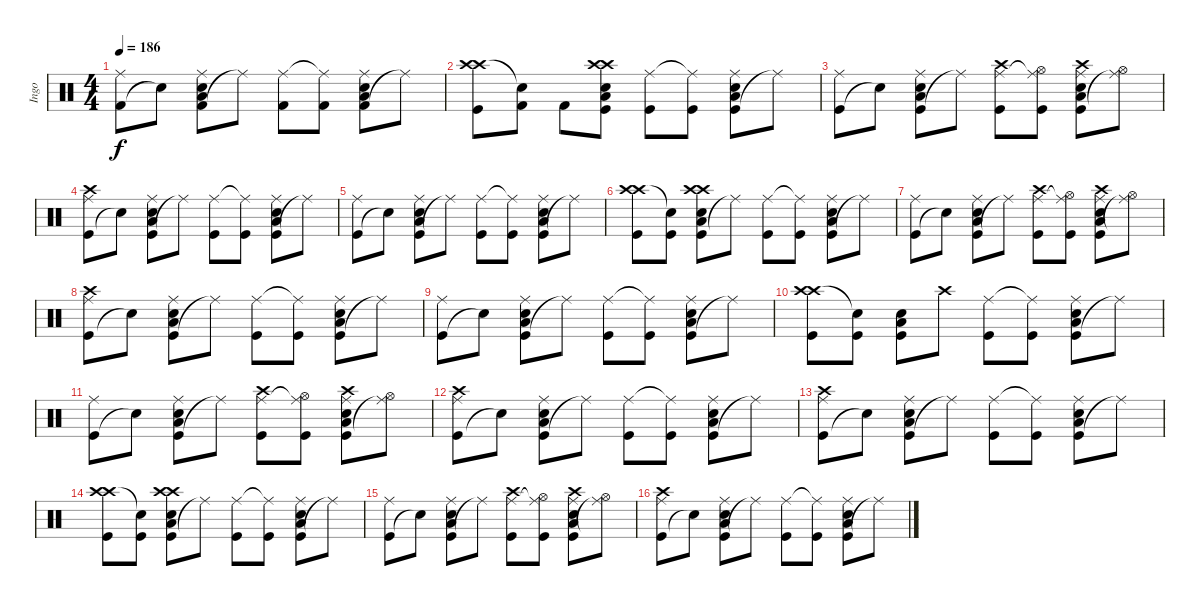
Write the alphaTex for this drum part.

\track ("Ingo" "Ingo") {instrument percussion}
\staff {score}
\articulation defaults
\ts (4 4)
\tempo 186
\clef neutral
\ks c
("Kick (hit) 2" "Ride (middle)").8{dy f} "Snare (hit)"{t}.8 ("Kick (hit) 2" "Low Tom (hit)" "Snare (hit) 2" "Ride (middle)").8 "Ride (middle)"{t}.8 ("Kick (hit) 2" "Ride (middle)").8 ("Kick (hit) 2" "Ride (middle)"{t}).8 ("Kick (hit) 2" "Low Tom (hit)" "Snare (hit) 2" "Ride (middle)").8 "Ride (middle)"{t}.8 |
("Kick (hit)" "Crash high (hit)" "Crash high (hit)").8 ("Kick (hit) 2" "Snare (hit)"{t}).8 "Kick (hit) 2".8 ("Kick (hit)" "Low Tom (hit)" "Snare (hit) 2" "Crash high (hit)" "Crash high (hit)").8 ("Kick (hit)" "Ride (middle)").8 ("Kick (hit)" "Ride (middle)"{t}).8 ("Kick (hit)" "Low Tom (hit)" "Snare (hit) 2" "Ride (middle)").8 "Ride (middle)"{t}.8 |
("Kick (hit)" "Ride (middle)").8 "Snare (hit)"{t}.8 ("Kick (hit)" "Low Tom (hit)" "Snare (hit) 2" "Ride (middle)").8 "Ride (middle)"{t}.8 ("Kick (hit)" "Ride (middle)" "Crash high (hit)").8 ("Kick (hit)" "Ride (middle)"{t} "Hi-Hat (open)").8 ("Kick (hit)" "Low Tom (hit)" "Snare (hit) 2" "Ride (middle)" "Crash high (hit)").8 ("Ride (middle)"{t} "Hi-Hat (open)").8 |
("Kick (hit)" "Ride (middle)" "Crash high (hit)").8 "Snare (hit)"{t}.8 ("Kick (hit)" "Low Tom (hit)" "Snare (hit) 2" "Ride (middle)").8 "Ride (middle)"{t}.8 ("Kick (hit)" "Ride (middle)").8 ("Kick (hit)" "Ride (middle)"{t}).8 ("Kick (hit)" "Low Tom (hit)" "Snare (hit) 2" "Ride (middle)").8 "Ride (middle)"{t}.8 |
("Kick (hit)" "Ride (middle)").8 "Snare (hit)"{t}.8 ("Kick (hit)" "Low Tom (hit)" "Snare (hit) 2" "Ride (middle)").8 "Ride (middle)"{t}.8 ("Kick (hit)" "Ride (middle)").8 ("Kick (hit)" "Ride (middle)"{t}).8 ("Kick (hit)" "Low Tom (hit)" "Snare (hit) 2" "Ride (middle)").8 "Ride (middle)"{t}.8 |
("Kick (hit)" "Crash high (hit)" "Crash high (hit)").8 ("Kick (hit)" "Snare (hit)"{t}).8 ("Kick (hit)" "Low Tom (hit)" "Snare (hit) 2" "Crash high (hit)" "Crash high (hit)").8 "Ride (middle)"{t}.8 ("Kick (hit)" "Ride (middle)").8 ("Kick (hit)" "Ride (middle)"{t}).8 ("Kick (hit)" "Low Tom (hit)" "Snare (hit) 2" "Ride (middle)").8 "Ride (middle)"{t}.8 |
("Kick (hit)" "Ride (middle)").8 "Snare (hit)"{t}.8 ("Kick (hit)" "Low Tom (hit)" "Snare (hit) 2" "Ride (middle)").8 "Ride (middle)"{t}.8 ("Kick (hit)" "Ride (middle)" "Crash high (hit)").8 ("Kick (hit)" "Ride (middle)"{t} "Hi-Hat (open)").8 ("Kick (hit)" "Low Tom (hit)" "Snare (hit) 2" "Ride (middle)" "Crash high (hit)").8 ("Ride (middle)"{t} "Hi-Hat (open)").8 |
("Kick (hit)" "Ride (middle)" "Crash high (hit)").8 "Snare (hit)"{t}.8 ("Kick (hit)" "Low Tom (hit)" "Snare (hit) 2" "Ride (middle)").8 "Ride (middle)"{t}.8 ("Kick (hit)" "Ride (middle)").8 ("Kick (hit)" "Ride (middle)"{t}).8 ("Kick (hit)" "Low Tom (hit)" "Snare (hit) 2" "Ride (middle)").8 "Ride (middle)"{t}.8 |
("Kick (hit)" "Ride (middle)").8 "Snare (hit)"{t}.8 ("Kick (hit)" "Low Tom (hit)" "Snare (hit) 2" "Ride (middle)").8 "Ride (middle)"{t}.8 ("Kick (hit)" "Ride (middle)").8 ("Kick (hit)" "Ride (middle)"{t}).8 ("Kick (hit)" "Low Tom (hit)" "Snare (hit) 2" "Ride (middle)").8 "Ride (middle)"{t}.8 |
("Kick (hit)" "Crash high (hit)" "Crash high (hit)").8 ("Kick (hit)" "Snare (hit)"{t}).8 ("Kick (hit)" "Low Tom (hit)" "Snare (hit) 2").8 "Crash high (hit)".8 ("Kick (hit)" "Ride (middle)").8 ("Kick (hit)" "Ride (middle)"{t}).8 ("Kick (hit)" "Low Tom (hit)" "Snare (hit) 2" "Ride (middle)").8 "Ride (middle)"{t}.8 |
("Kick (hit)" "Ride (middle)").8 "Snare (hit)"{t}.8 ("Kick (hit)" "Low Tom (hit)" "Snare (hit) 2" "Ride (middle)").8 "Ride (middle)"{t}.8 ("Kick (hit)" "Ride (middle)" "Crash high (hit)").8 ("Kick (hit)" "Ride (middle)"{t} "Hi-Hat (open)").8 ("Kick (hit)" "Low Tom (hit)" "Snare (hit) 2" "Ride (middle)" "Crash high (hit)").8 ("Ride (middle)"{t} "Hi-Hat (open)").8 |
("Kick (hit)" "Ride (middle)" "Crash high (hit)").8 "Snare (hit)"{t}.8 ("Kick (hit)" "Low Tom (hit)" "Snare (hit) 2" "Ride (middle)").8 "Ride (middle)"{t}.8 ("Kick (hit)" "Ride (middle)").8 ("Kick (hit)" "Ride (middle)"{t}).8 ("Kick (hit)" "Low Tom (hit)" "Snare (hit) 2" "Ride (middle)").8 "Ride (middle)"{t}.8 |
("Kick (hit)" "Ride (middle)" "Crash high (hit)").8 "Snare (hit)"{t}.8 ("Kick (hit)" "Low Tom (hit)" "Snare (hit) 2" "Ride (middle)").8 "Ride (middle)"{t}.8 ("Kick (hit)" "Ride (middle)").8 ("Kick (hit)" "Ride (middle)"{t}).8 ("Kick (hit)" "Low Tom (hit)" "Snare (hit) 2" "Ride (middle)").8 "Ride (middle)"{t}.8 |
("Kick (hit)" "Crash high (hit)" "Crash high (hit)").8 ("Kick (hit)" "Snare (hit)"{t}).8 ("Kick (hit)" "Low Tom (hit)" "Snare (hit) 2" "Crash high (hit)" "Crash high (hit)").8 "Ride (middle)"{t}.8 ("Kick (hit)" "Ride (middle)").8 ("Kick (hit)" "Ride (middle)"{t}).8 ("Kick (hit)" "Low Tom (hit)" "Snare (hit) 2" "Ride (middle)").8 "Ride (middle)"{t}.8 |
("Kick (hit)" "Ride (middle)").8 "Snare (hit)"{t}.8 ("Kick (hit)" "Low Tom (hit)" "Snare (hit) 2" "Ride (middle)").8 "Ride (middle)"{t}.8 ("Kick (hit)" "Ride (middle)" "Crash high (hit)").8 ("Kick (hit)" "Ride (middle)"{t} "Hi-Hat (open)").8 ("Kick (hit)" "Low Tom (hit)" "Snare (hit) 2" "Ride (middle)" "Crash high (hit)").8 ("Ride (middle)"{t} "Hi-Hat (open)").8 |
("Kick (hit)" "Ride (middle)" "Crash high (hit)").8 "Snare (hit)"{t}.8 ("Kick (hit)" "Low Tom (hit)" "Snare (hit) 2" "Ride (middle)").8 "Ride (middle)"{t}.8 ("Kick (hit)" "Ride (middle)").8 ("Kick (hit)" "Ride (middle)"{t}).8 ("Kick (hit)" "Low Tom (hit)" "Snare (hit) 2" "Ride (middle)").8 "Ride (middle)"{t}.8
